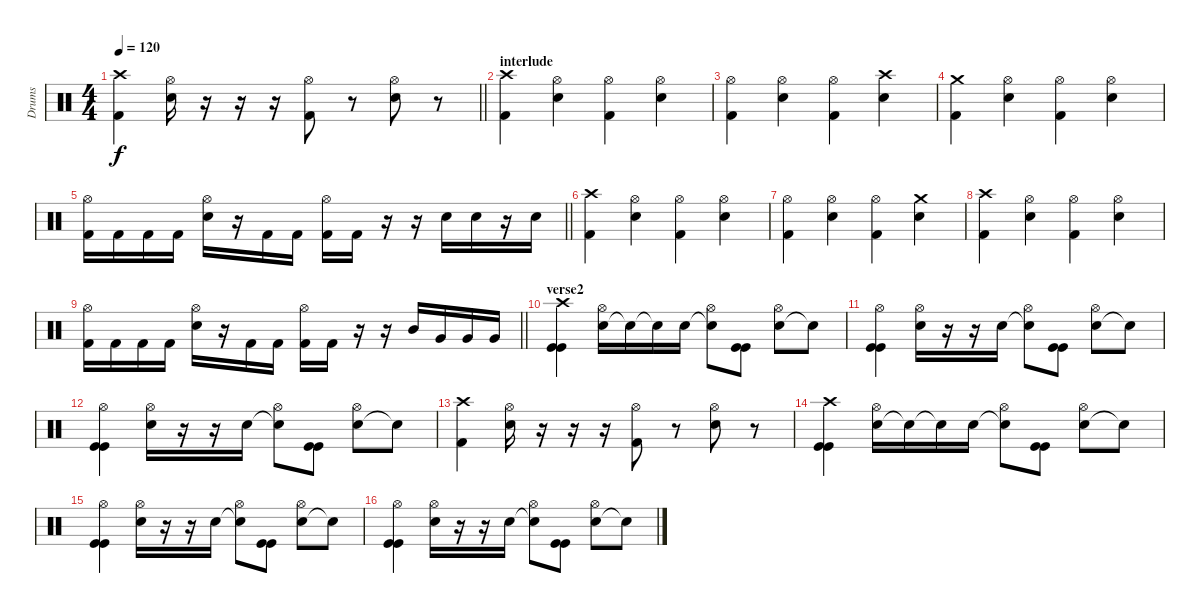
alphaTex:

\track ("Drums" "Drums") {instrument percussion}
\staff {score}
\articulation defaults
\ts (4 4)
\tempo 120
\clef neutral
\barLineRight lightlight
\ks c
("Kick (hit) 2" "Crash high (hit)").4{dy f} ("Electric Snare (hit)" "Hi-Hat (open)").16 r.16 r.16 r.16 ("Kick (hit) 2" "Hi-Hat (open)").8 r.8 ("Electric Snare (hit)" "Hi-Hat (open)").8 r.8 |
\section ("" "interlude")
("Kick (hit) 2" "Crash high (hit)").4 ("Snare (hit) 2" "Hi-Hat (open)").4 ("Kick (hit) 2" "Hi-Hat (open)").4 ("Snare (hit) 2" "Hi-Hat (open)").4 |
("Kick (hit) 2" "Hi-Hat (open)").4 ("Snare (hit) 2" "Hi-Hat (open)").4 ("Kick (hit) 2" "Hi-Hat (open)").4 ("Snare (hit) 2" "Crash high (hit)").4 |
("Kick (hit) 2" "Crash medium (hit)").4 ("Snare (hit) 2" "Hi-Hat (open)").4 ("Kick (hit) 2" "Hi-Hat (open)").4 ("Snare (hit) 2" "Hi-Hat (open)").4 |
\barLineRight lightlight
("Kick (hit) 2" "Hi-Hat (open)").16 "Kick (hit) 2".16 "Kick (hit) 2".16 "Kick (hit) 2".16 ("Snare (hit) 2" "Hi-Hat (open)").16 r.16 "Kick (hit) 2".16 "Kick (hit) 2".16 ("Kick (hit) 2" "Hi-Hat (open)").16 "Kick (hit) 2".16 r.16 r.16 "Snare (hit) 2".16 "Snare (hit) 2".16 r.16 "Snare (hit) 2".16 |
("Kick (hit) 2" "Crash high (hit)").4 ("Snare (hit) 2" "Hi-Hat (open)").4 ("Kick (hit) 2" "Hi-Hat (open)").4 ("Snare (hit) 2" "Hi-Hat (open)").4 |
("Kick (hit) 2" "Hi-Hat (open)").4 ("Snare (hit) 2" "Hi-Hat (open)").4 ("Kick (hit) 2" "Hi-Hat (open)").4 ("Snare (hit) 2" "Crash medium (hit)").4 |
("Kick (hit) 2" "Crash high (hit)").4 ("Snare (hit) 2" "Hi-Hat (open)").4 ("Kick (hit) 2" "Hi-Hat (open)").4 ("Snare (hit) 2" "Hi-Hat (open)").4 |
\barLineRight lightlight
("Kick (hit) 2" "Hi-Hat (open)").16 "Kick (hit) 2".16 "Kick (hit) 2".16 "Kick (hit) 2".16 ("Snare (hit) 2" "Hi-Hat (open)").16 r.16 "Kick (hit) 2".16 "Kick (hit) 2".16 ("Kick (hit) 2" "Hi-Hat (open)").16 "Kick (hit) 2".16 r.16 r.16 "Mid Tom (hit)".16 "Very Low Tom (hit)".16 "Very Low Tom (hit)".16 "Very Low Tom (hit)".16 |
\section ("" "verse2")
("Kick (hit)" "Kick (hit)" "Crash high (hit)").4 ("Snare (hit) 2" "Hi-Hat (open)").16 "Snare (hit)"{t}.16 "Snare (hit)"{t}.16 "Snare (hit) 2".16 ("Snare (hit)"{t} "Hi-Hat (open)").8 ("Kick (hit)" "Kick (hit)").8 ("Snare (hit) 2" "Hi-Hat (open)").8 "Snare (hit)"{t}.8 |
("Kick (hit)" "Kick (hit)" "Hi-Hat (open)").4 ("Snare (hit) 2" "Hi-Hat (open)").16 r.16 r.16 "Snare (hit) 2".16 ("Snare (hit)"{t} "Hi-Hat (open)").8 ("Kick (hit)" "Kick (hit)").8 ("Snare (hit) 2" "Hi-Hat (open)").8 "Snare (hit)"{t}.8 |
("Kick (hit)" "Kick (hit)" "Hi-Hat (open)").4 ("Snare (hit) 2" "Hi-Hat (open)").16 r.16 r.16 "Snare (hit) 2".16 ("Snare (hit)"{t} "Hi-Hat (open)").8 ("Kick (hit)" "Kick (hit)").8 ("Snare (hit) 2" "Hi-Hat (open)").8 "Snare (hit)"{t}.8 |
("Kick (hit) 2" "Crash high (hit)").4 ("Electric Snare (hit)" "Hi-Hat (open)").16 r.16 r.16 r.16 ("Kick (hit) 2" "Hi-Hat (open)").8 r.8 ("Electric Snare (hit)" "Hi-Hat (open)").8 r.8 |
("Kick (hit)" "Kick (hit)" "Crash high (hit)").4 ("Snare (hit) 2" "Hi-Hat (open)").16 "Snare (hit)"{t}.16 "Snare (hit)"{t}.16 "Snare (hit) 2".16 ("Snare (hit)"{t} "Hi-Hat (open)").8 ("Kick (hit)" "Kick (hit)").8 ("Snare (hit) 2" "Hi-Hat (open)").8 "Snare (hit)"{t}.8 |
("Kick (hit)" "Kick (hit)" "Hi-Hat (open)").4 ("Snare (hit) 2" "Hi-Hat (open)").16 r.16 r.16 "Snare (hit) 2".16 ("Snare (hit)"{t} "Hi-Hat (open)").8 ("Kick (hit)" "Kick (hit)").8 ("Snare (hit) 2" "Hi-Hat (open)").8 "Snare (hit)"{t}.8 |
("Kick (hit)" "Kick (hit)" "Hi-Hat (open)").4 ("Snare (hit) 2" "Hi-Hat (open)").16 r.16 r.16 "Snare (hit) 2".16 ("Snare (hit)"{t} "Hi-Hat (open)").8 ("Kick (hit)" "Kick (hit)").8 ("Snare (hit) 2" "Hi-Hat (open)").8 "Snare (hit)"{t}.8
